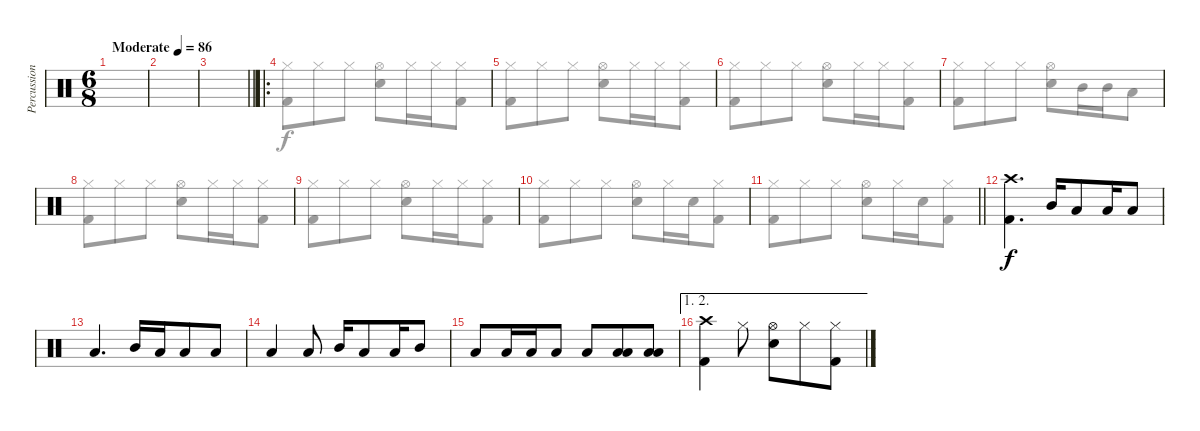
\track ("Percussion" "Percussion") {instrument percussion}
\staff {score}
\articulation defaults
\voice
\ts (6 8)
\tempo (86 "Moderate")
\clef neutral
\ks c
|
|
\barLineRight lightlight
|
\ro
|
|
|
|
|
|
|
\barLineRight lightlight
|
("Crash high (hit)" "Kick (hit) 2").4{d} "Mid Tom (hit)".16 "Low Tom (hit)".8 "Low Tom (hit)".16 "Low Floor Tom (hit)".8 |
"Low Tom (hit)".4{d} "Mid Tom (hit)".16 "Low Tom (hit)".16 "Low Floor Tom (hit)".8 "Low Floor Tom (hit)".8 |
"Low Floor Tom (hit)".4 "Low Tom (hit)".8 "Mid Tom (hit)".16 "Low Tom (hit)".8 "Low Tom (hit)".16 "Mid Tom (hit)".8 |
"Low Tom (hit)".8 "Low Tom (hit)".16 "Low Tom (hit)".16 "Low Tom (hit)".8 "Low Floor Tom (hit)".8 ("Low Tom (hit)" "Low Floor Tom (hit)").8 ("Low Tom (hit)" "Low Floor Tom (hit)").8 |
\ae (1 2)
("Crash high (hit)" "Kick (hit) 2").4 "Hi-Hat (closed)".8 ("Hi-Hat (open)" "Snare (hit) 2").8 "Hi-Hat (closed)".8 ("Hi-Hat (closed)" "Kick (hit) 2").8
\voice
\clef neutral
\ottava regular
\simile none
\ks c
|
|
\barLineRight lightlight
|
("Hi-Hat (closed)" "Kick (hit) 2").8 "Hi-Hat (closed)".8 "Hi-Hat (closed)".8 ("Hi-Hat (open)" "Snare (hit) 2").8 "Hi-Hat (closed)".16 "Hi-Hat (closed)".16 ("Hi-Hat (closed)" "Kick (hit) 2").8 |
("Hi-Hat (closed)" "Kick (hit) 2").8 "Hi-Hat (closed)".8 "Hi-Hat (closed)".8 ("Hi-Hat (open)" "Snare (hit) 2").8 "Hi-Hat (closed)".16 "Hi-Hat (closed)".16 ("Hi-Hat (closed)" "Kick (hit) 2").8 |
("Hi-Hat (closed)" "Kick (hit) 2").8 "Hi-Hat (closed)".8 "Hi-Hat (closed)".8 ("Hi-Hat (open)" "Snare (hit) 2").8 "Hi-Hat (closed)".16 "Hi-Hat (closed)".16 ("Hi-Hat (closed)" "Kick (hit) 2").8 |
("Hi-Hat (closed)" "Kick (hit) 2").8 "Hi-Hat (closed)".8 "Hi-Hat (closed)".8 ("Hi-Hat (open)" "Snare (hit) 2").8 "Mid Tom (hit)".16 "Mid Tom (hit)".16 "Low Floor Tom (hit)".8 |
("Hi-Hat (closed)" "Kick (hit) 2").8 "Hi-Hat (closed)".8 "Hi-Hat (closed)".8 ("Hi-Hat (open)" "Snare (hit) 2").8 "Hi-Hat (closed)".16 "Hi-Hat (closed)".16 ("Hi-Hat (closed)" "Kick (hit) 2").8 |
("Hi-Hat (closed)" "Kick (hit) 2").8 "Hi-Hat (closed)".8 "Hi-Hat (closed)".8 ("Hi-Hat (open)" "Snare (hit) 2").8 "Hi-Hat (closed)".16 "Hi-Hat (closed)".16 ("Hi-Hat (closed)" "Kick (hit) 2").8 |
("Hi-Hat (closed)" "Kick (hit) 2").8 "Hi-Hat (closed)".8 "Hi-Hat (closed)".8 ("Hi-Hat (open)" "Snare (hit) 2").8 "Hi-Hat (closed)".16 "Snare (hit) 2".16 ("Hi-Hat (closed)" "Kick (hit) 2").8 |
\barLineRight lightlight
("Hi-Hat (closed)" "Kick (hit) 2").8 "Hi-Hat (closed)".8 "Hi-Hat (closed)".8 ("Hi-Hat (open)" "Snare (hit) 2").8 "Hi-Hat (closed)".16 "Snare (hit) 2".16 ("Hi-Hat (closed)" "Kick (hit) 2").8 |
|
|
|
|
